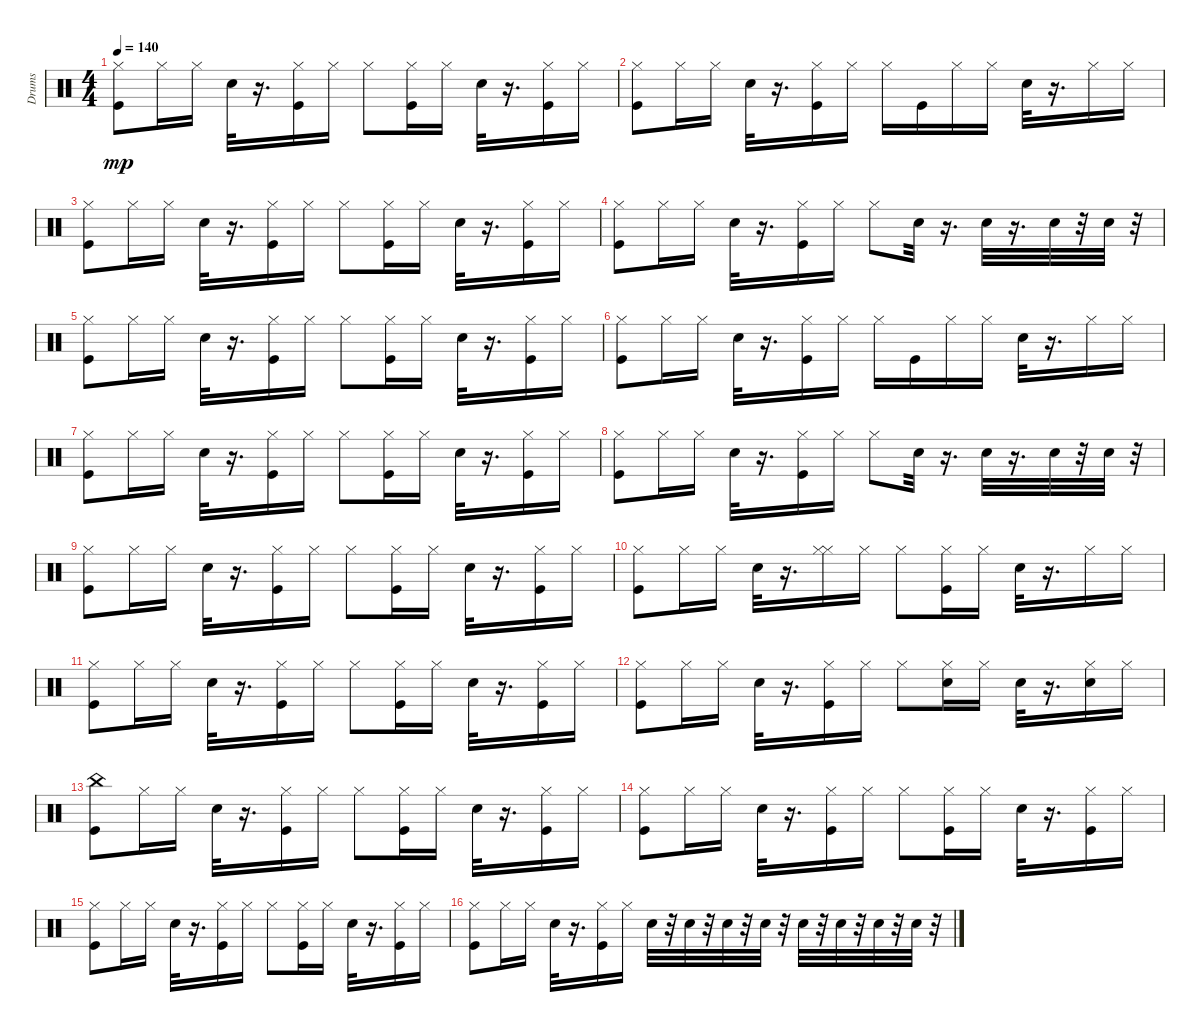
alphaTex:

\track ("Drums" "Drums") {instrument percussion}
\staff {score}
\articulation defaults
\ts (4 4)
\tempo 140
\clef neutral
\ks c
("Kick (hit)" "Hi-Hat (closed)").8{dy mp} "Hi-Hat (closed)".16 "Hi-Hat (closed)".16 "Electric Snare (hit)".32 r.16{d} ("Kick (hit)" "Hi-Hat (closed)").16 "Hi-Hat (closed)".16 "Hi-Hat (closed)".8 ("Kick (hit)" "Hi-Hat (closed)").16 "Hi-Hat (closed)".16 "Electric Snare (hit)".32 r.16{d} ("Kick (hit)" "Hi-Hat (closed)").16 "Hi-Hat (closed)".16 |
("Kick (hit)" "Hi-Hat (closed)").8{volume 12} "Hi-Hat (closed)".16 "Hi-Hat (closed)".16 "Electric Snare (hit)".32 r.16{d} ("Kick (hit)" "Hi-Hat (closed)").16 "Hi-Hat (closed)".16 "Hi-Hat (closed)".16 "Kick (hit)".16 "Hi-Hat (closed)".16 "Hi-Hat (closed)".16 "Electric Snare (hit)".32 r.16{d} "Hi-Hat (closed)".16 "Hi-Hat (closed)".16 |
("Kick (hit)" "Hi-Hat (closed)").8{volume 12} "Hi-Hat (closed)".16 "Hi-Hat (closed)".16 "Electric Snare (hit)".32 r.16{d} ("Kick (hit)" "Hi-Hat (closed)").16 "Hi-Hat (closed)".16 "Hi-Hat (closed)".8 ("Kick (hit)" "Hi-Hat (closed)").16 "Hi-Hat (closed)".16 "Electric Snare (hit)".32 r.16{d} ("Kick (hit)" "Hi-Hat (closed)").16 "Hi-Hat (closed)".16 |
("Kick (hit)" "Hi-Hat (closed)").8{volume 12} "Hi-Hat (closed)".16 "Hi-Hat (closed)".16 "Electric Snare (hit)".32 r.16{d} ("Kick (hit)" "Hi-Hat (closed)").16 "Hi-Hat (closed)".16 "Hi-Hat (closed)".8 "Electric Snare (hit)".32 r.16{d} "Electric Snare (hit)".32 r.16{d} "Electric Snare (hit)".32 r.32 "Electric Snare (hit)".32 r.32 |
("Kick (hit)" "Hi-Hat (closed)").8 "Hi-Hat (closed)".16 "Hi-Hat (closed)".16 "Electric Snare (hit)".32 r.16{d} ("Kick (hit)" "Hi-Hat (closed)").16 "Hi-Hat (closed)".16 "Hi-Hat (closed)".8 ("Kick (hit)" "Hi-Hat (closed)").16 "Hi-Hat (closed)".16 "Electric Snare (hit)".32 r.16{d} ("Kick (hit)" "Hi-Hat (closed)").16 "Hi-Hat (closed)".16 |
("Kick (hit)" "Hi-Hat (closed)").8{volume 12} "Hi-Hat (closed)".16 "Hi-Hat (closed)".16 "Electric Snare (hit)".32 r.16{d} ("Kick (hit)" "Hi-Hat (closed)").16 "Hi-Hat (closed)".16 "Hi-Hat (closed)".16 "Kick (hit)".16 "Hi-Hat (closed)".16 "Hi-Hat (closed)".16 "Electric Snare (hit)".32 r.16{d} "Hi-Hat (closed)".16 "Hi-Hat (closed)".16 |
("Kick (hit)" "Hi-Hat (closed)").8{volume 12} "Hi-Hat (closed)".16 "Hi-Hat (closed)".16 "Electric Snare (hit)".32 r.16{d} ("Kick (hit)" "Hi-Hat (closed)").16 "Hi-Hat (closed)".16 "Hi-Hat (closed)".8 ("Kick (hit)" "Hi-Hat (closed)").16 "Hi-Hat (closed)".16 "Electric Snare (hit)".32 r.16{d} ("Kick (hit)" "Hi-Hat (closed)").16 "Hi-Hat (closed)".16 |
("Kick (hit)" "Hi-Hat (closed)").8{volume 12} "Hi-Hat (closed)".16 "Hi-Hat (closed)".16 "Electric Snare (hit)".32 r.16{d} ("Kick (hit)" "Hi-Hat (closed)").16 "Hi-Hat (closed)".16 "Hi-Hat (closed)".8 "Electric Snare (hit)".32 r.16{d} "Electric Snare (hit)".32 r.16{d} "Electric Snare (hit)".32 r.32 "Electric Snare (hit)".32 r.32 |
("Kick (hit)" "Hi-Hat (closed)").8{volume 12} "Hi-Hat (closed)".16 "Hi-Hat (closed)".16 "Electric Snare (hit)".32 r.16{d} ("Kick (hit)" "Hi-Hat (closed)").16 "Hi-Hat (closed)".16 "Hi-Hat (closed)".8 ("Kick (hit)" "Hi-Hat (closed)").16 "Hi-Hat (closed)".16 "Electric Snare (hit)".32 r.16{d} ("Kick (hit)" "Hi-Hat (closed)").16 "Hi-Hat (closed)".16 |
("Kick (hit)" "Hi-Hat (closed)").8{volume 12} "Hi-Hat (closed)".16 "Hi-Hat (closed)".16 "Electric Snare (hit)".32 r.16{d} ("Hi-Hat (closed)" "Hi-Hat (closed)").16 "Hi-Hat (closed)".16 "Hi-Hat (closed)".8 ("Kick (hit)" "Hi-Hat (closed)").16 "Hi-Hat (closed)".16 "Electric Snare (hit)".32 r.16{d} "Hi-Hat (closed)".16 "Hi-Hat (closed)".16 |
("Kick (hit)" "Hi-Hat (closed)").8{volume 12} "Hi-Hat (closed)".16 "Hi-Hat (closed)".16 "Electric Snare (hit)".32 r.16{d} ("Kick (hit)" "Hi-Hat (closed)").16 "Hi-Hat (closed)".16 "Hi-Hat (closed)".8 ("Kick (hit)" "Hi-Hat (closed)").16 "Hi-Hat (closed)".16 "Electric Snare (hit)".32 r.16{d} ("Kick (hit)" "Hi-Hat (closed)").16 "Hi-Hat (closed)".16 |
("Kick (hit)" "Hi-Hat (closed)").8{volume 12} "Hi-Hat (closed)".16 "Hi-Hat (closed)".16 "Electric Snare (hit)".32 r.16{d} ("Kick (hit)" "Hi-Hat (closed)").16 "Hi-Hat (closed)".16 "Hi-Hat (closed)".8 ("Snare (hit)" "Hi-Hat (closed)").16 "Hi-Hat (closed)".16 "Electric Snare (hit)".32 r.16{d} ("Electric Snare (hit)" "Hi-Hat (closed)").16 "Hi-Hat (closed)".16 |
("Kick (hit)" "China (hit)").8{volume 12} "Hi-Hat (closed)".16 "Hi-Hat (closed)".16 "Electric Snare (hit)".32 r.16{d} ("Kick (hit)" "Hi-Hat (closed)").16 "Hi-Hat (closed)".16 "Hi-Hat (closed)".8 ("Kick (hit)" "Hi-Hat (closed)").16 "Hi-Hat (closed)".16 "Electric Snare (hit)".32 r.16{d} ("Kick (hit)" "Hi-Hat (closed)").16 "Hi-Hat (closed)".16 |
("Kick (hit)" "Hi-Hat (closed)").8{volume 12} "Hi-Hat (closed)".16 "Hi-Hat (closed)".16 "Electric Snare (hit)".32 r.16{d} ("Kick (hit)" "Hi-Hat (closed)").16 "Hi-Hat (closed)".16 "Hi-Hat (closed)".8 ("Kick (hit)" "Hi-Hat (closed)").16 "Hi-Hat (closed)".16 "Electric Snare (hit)".32 r.16{d} ("Kick (hit)" "Hi-Hat (closed)").16 "Hi-Hat (closed)".16 |
("Kick (hit)" "Hi-Hat (closed)").8{volume 12} "Hi-Hat (closed)".16 "Hi-Hat (closed)".16 "Electric Snare (hit)".32 r.16{d} ("Kick (hit)" "Hi-Hat (closed)").16 "Hi-Hat (closed)".16 "Hi-Hat (closed)".8 ("Kick (hit)" "Hi-Hat (closed)").16 "Hi-Hat (closed)".16 "Electric Snare (hit)".32 r.16{d} ("Kick (hit)" "Hi-Hat (closed)").16 "Hi-Hat (closed)".16 |
("Kick (hit)" "Hi-Hat (closed)").8{volume 12} "Hi-Hat (closed)".16 "Hi-Hat (closed)".16 "Electric Snare (hit)".32 r.16{d} ("Kick (hit)" "Hi-Hat (closed)").16 "Hi-Hat (closed)".16 "Electric Snare (hit)".32 r.32 "Electric Snare (hit)".32 r.32 "Electric Snare (hit)".32 r.32 "Electric Snare (hit)".32 r.32 "Electric Snare (hit)".32 r.32 "Electric Snare (hit)".32 r.32 "Electric Snare (hit)".32 r.32 "Electric Snare (hit)".32 r.32
